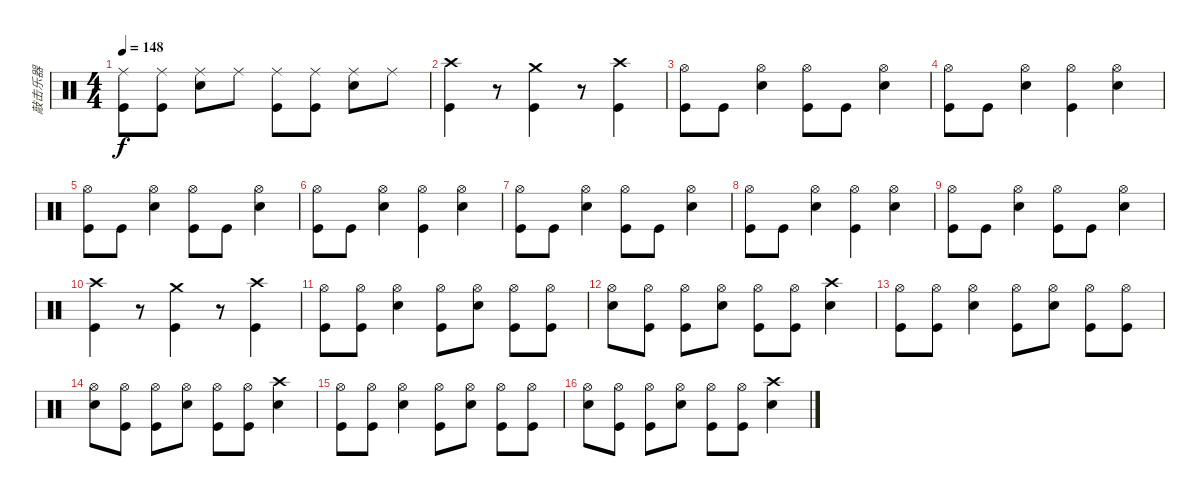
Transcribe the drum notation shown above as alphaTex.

\track ("敲击乐器" "敲击乐器") {instrument percussion}
\staff {score}
\articulation defaults
\ts (4 4)
\tempo 148
\clef neutral
\ks c
("Ride (middle)" "Kick (hit)").8{dy f} ("Ride (middle)" "Kick (hit)").8 ("Ride (middle)" "Snare (hit) 2").8 "Ride (middle)".8 ("Ride (middle)" "Kick (hit)").8 ("Ride (middle)" "Kick (hit)").8 ("Ride (middle)" "Snare (hit) 2").8 "Ride (middle)".8 |
("Crash high (hit)" "Kick (hit)").4 r.8 ("Crash medium (hit)" "Kick (hit)").4 r.8 ("Crash high (hit)" "Kick (hit)").4 |
("Hi-Hat (open)" "Kick (hit)").8 "Kick (hit)".8 ("Hi-Hat (open)" "Snare (hit) 2").4 ("Hi-Hat (open)" "Kick (hit)").8 "Kick (hit)".8 ("Hi-Hat (open)" "Snare (hit) 2").4 |
("Hi-Hat (open)" "Kick (hit)").8 "Kick (hit)".8 ("Hi-Hat (open)" "Snare (hit) 2").4 ("Hi-Hat (open)" "Kick (hit)").4 ("Hi-Hat (open)" "Snare (hit) 2").4 |
("Hi-Hat (open)" "Kick (hit)").8 "Kick (hit)".8 ("Hi-Hat (open)" "Snare (hit) 2").4 ("Hi-Hat (open)" "Kick (hit)").8 "Kick (hit)".8 ("Hi-Hat (open)" "Snare (hit) 2").4 |
("Hi-Hat (open)" "Kick (hit)").8 "Kick (hit)".8 ("Hi-Hat (open)" "Snare (hit) 2").4 ("Hi-Hat (open)" "Kick (hit)").4 ("Hi-Hat (open)" "Snare (hit) 2").4 |
("Hi-Hat (open)" "Kick (hit)").8 "Kick (hit)".8 ("Hi-Hat (open)" "Snare (hit) 2").4 ("Hi-Hat (open)" "Kick (hit)").8 "Kick (hit)".8 ("Hi-Hat (open)" "Snare (hit) 2").4 |
("Hi-Hat (open)" "Kick (hit)").8 "Kick (hit)".8 ("Hi-Hat (open)" "Snare (hit) 2").4 ("Hi-Hat (open)" "Kick (hit)").4 ("Hi-Hat (open)" "Snare (hit) 2").4 |
("Hi-Hat (open)" "Kick (hit)").8 "Kick (hit)".8 ("Hi-Hat (open)" "Snare (hit) 2").4 ("Hi-Hat (open)" "Kick (hit)").8 "Kick (hit)".8 ("Hi-Hat (open)" "Snare (hit) 2").4 |
("Crash high (hit)" "Kick (hit)").4 r.8 ("Crash medium (hit)" "Kick (hit)").4 r.8 ("Crash high (hit)" "Kick (hit)").4 |
("Hi-Hat (open)" "Kick (hit)").8 ("Hi-Hat (open)" "Kick (hit)").8 ("Hi-Hat (open)" "Snare (hit) 2").4 ("Hi-Hat (open)" "Kick (hit)").8 ("Hi-Hat (open)" "Snare (hit) 2").8 ("Hi-Hat (open)" "Kick (hit)").8 ("Hi-Hat (open)" "Kick (hit)").8 |
("Hi-Hat (open)" "Snare (hit) 2").8 ("Hi-Hat (open)" "Kick (hit)").8 ("Hi-Hat (open)" "Kick (hit)").8 ("Hi-Hat (open)" "Snare (hit) 2").8 ("Hi-Hat (open)" "Kick (hit)").8 ("Hi-Hat (open)" "Kick (hit)").8 ("Crash high (hit)" "Snare (hit) 2").4 |
("Hi-Hat (open)" "Kick (hit)").8 ("Hi-Hat (open)" "Kick (hit)").8 ("Hi-Hat (open)" "Snare (hit) 2").4 ("Hi-Hat (open)" "Kick (hit)").8 ("Hi-Hat (open)" "Snare (hit) 2").8 ("Hi-Hat (open)" "Kick (hit)").8 ("Hi-Hat (open)" "Kick (hit)").8 |
("Hi-Hat (open)" "Snare (hit) 2").8 ("Hi-Hat (open)" "Kick (hit)").8 ("Hi-Hat (open)" "Kick (hit)").8 ("Hi-Hat (open)" "Snare (hit) 2").8 ("Hi-Hat (open)" "Kick (hit)").8 ("Hi-Hat (open)" "Kick (hit)").8 ("Crash high (hit)" "Snare (hit) 2").4 |
("Hi-Hat (open)" "Kick (hit)").8 ("Hi-Hat (open)" "Kick (hit)").8 ("Hi-Hat (open)" "Snare (hit) 2").4 ("Hi-Hat (open)" "Kick (hit)").8 ("Hi-Hat (open)" "Snare (hit) 2").8 ("Hi-Hat (open)" "Kick (hit)").8 ("Hi-Hat (open)" "Kick (hit)").8 |
("Hi-Hat (open)" "Snare (hit) 2").8 ("Hi-Hat (open)" "Kick (hit)").8 ("Hi-Hat (open)" "Kick (hit)").8 ("Hi-Hat (open)" "Snare (hit) 2").8 ("Hi-Hat (open)" "Kick (hit)").8 ("Hi-Hat (open)" "Kick (hit)").8 ("Crash high (hit)" "Snare (hit) 2").4
